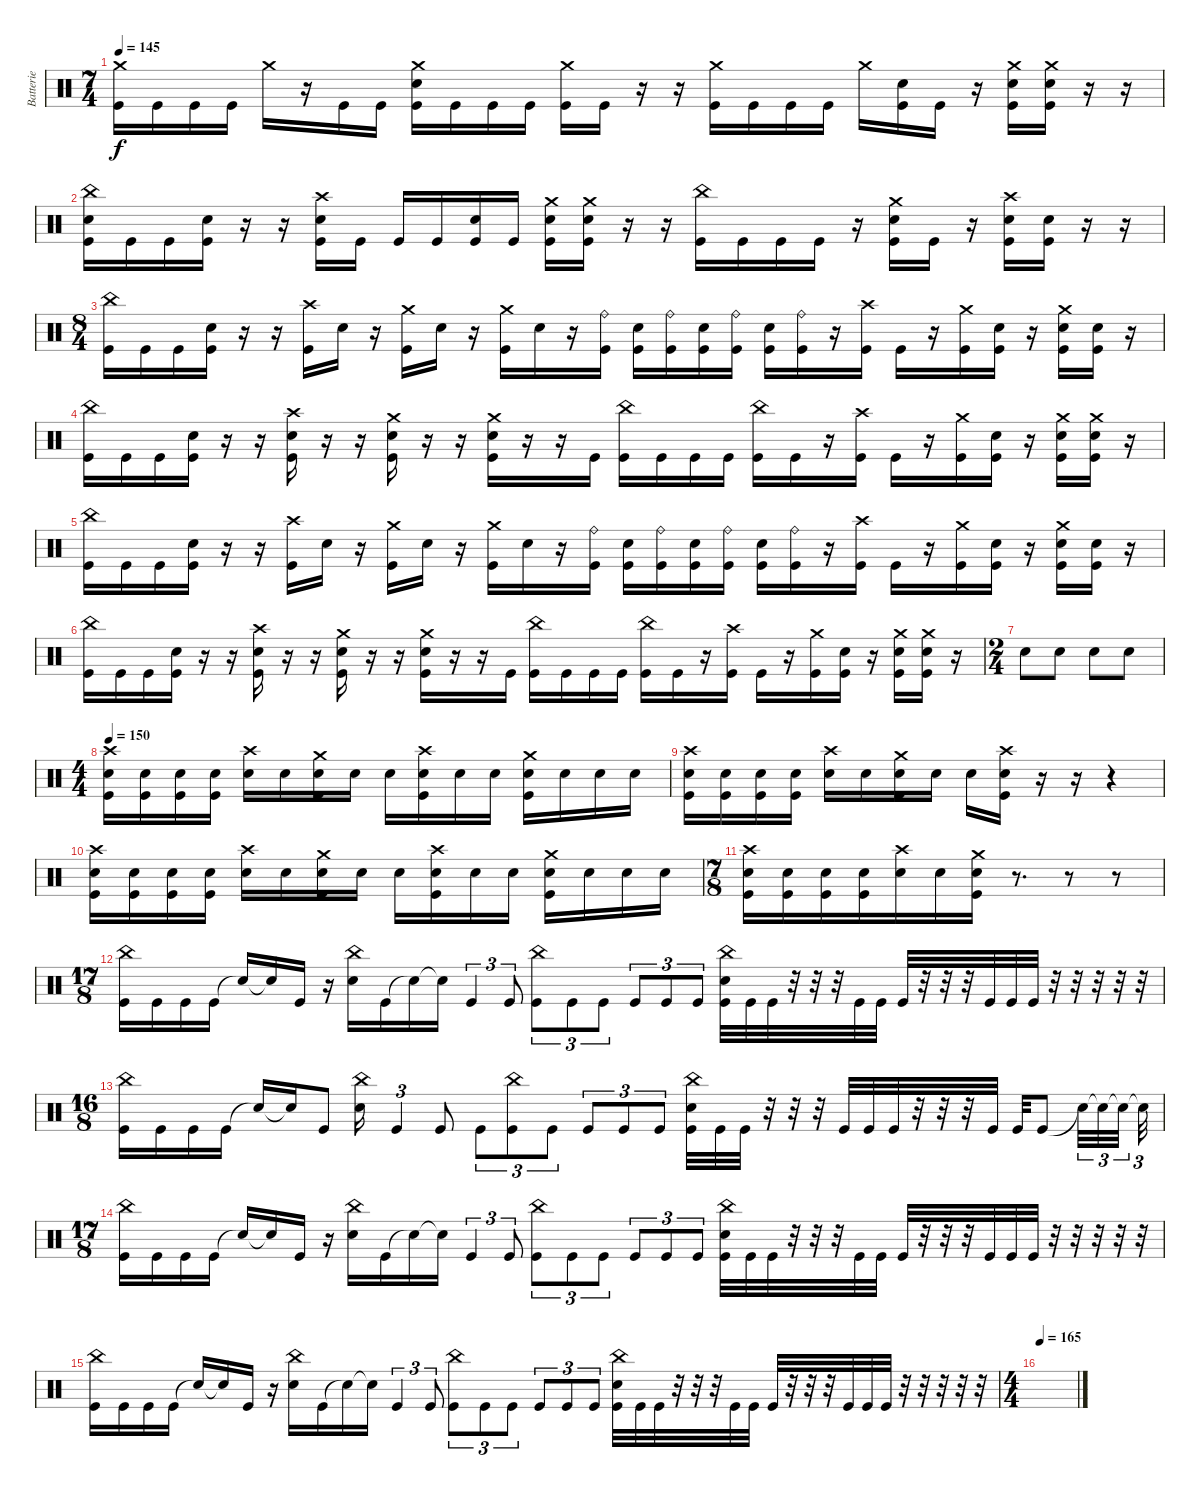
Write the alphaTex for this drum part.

\track ("Batterie" "Batterie") {instrument percussion}
\staff {score}
\articulation defaults
\ts (7 4)
\tempo 145
\clef neutral
\ks c
("Crash medium (hit)" "Kick (hit)").16{dy f} "Kick (hit)".16 "Kick (hit)".16 "Kick (hit)".16 "Crash medium (hit)".16 r.16 "Kick (hit)".16 "Kick (hit)".16 ("Crash medium (hit)" "Electric Snare (hit)" "Kick (hit)").16 "Kick (hit)".16 "Kick (hit)".16 "Kick (hit)".16 ("Crash medium (hit)" "Kick (hit)").16 "Kick (hit)".16 r.16 r.16 ("Crash medium (hit)" "Kick (hit)").16 "Kick (hit)".16 "Kick (hit)".16 "Kick (hit)".16 "Crash medium (hit)".16 ("Electric Snare (hit)" "Kick (hit)").16 "Kick (hit)".16 r.16 ("Crash medium (hit)" "Electric Snare (hit)" "Kick (hit)").16 ("Crash medium (hit)" "Electric Snare (hit)" "Kick (hit)").16 r.16 r.16 |
("China (hit)" "Electric Snare (hit)" "Kick (hit)").16 "Kick (hit)".16 "Kick (hit)".16 ("Electric Snare (hit)" "Kick (hit)").16 r.16 r.16 ("Crash high (hit)" "Electric Snare (hit)" "Kick (hit)").16 "Kick (hit)".16 "Kick (hit)".16 "Kick (hit)".16 ("Electric Snare (hit)" "Kick (hit)").16 "Kick (hit)".16 ("Crash medium (hit)" "Electric Snare (hit)" "Kick (hit)").16 ("Crash medium (hit)" "Electric Snare (hit)" "Kick (hit)").16 r.16 r.16 ("China (hit)" "Kick (hit)").16 "Kick (hit)".16 "Kick (hit)".16 "Kick (hit)".16 r.16 ("Crash medium (hit)" "Electric Snare (hit)" "Kick (hit)").16 "Kick (hit)".16 r.16 ("Crash high (hit)" "Electric Snare (hit)" "Kick (hit)").16 ("Electric Snare (hit)" "Kick (hit)").16 r.16 r.16 |
\ts (8 4)
("China (hit)" "Kick (hit)").16 "Kick (hit)".16 "Kick (hit)".16 ("Electric Snare (hit)" "Kick (hit)").16 r.16 r.16 ("Crash high (hit)" "Kick (hit)").16 "Electric Snare (hit)".16 r.16 ("Crash medium (hit)" "Kick (hit)").16 "Electric Snare (hit)".16 r.16 ("Crash medium (hit)" "Kick (hit)").16 "Electric Snare (hit)".16 r.16 ("Ride (bell)" "Kick (hit)").16 ("Electric Snare (hit)" "Kick (hit)").16 ("Ride (bell)" "Kick (hit)").16 ("Electric Snare (hit)" "Kick (hit)").16 ("Ride (bell)" "Kick (hit)").16 ("Electric Snare (hit)" "Kick (hit)").16 ("Ride (bell)" "Kick (hit)").16 r.16 ("Crash high (hit)" "Kick (hit)").16 "Kick (hit)".16 r.16 ("Crash medium (hit)" "Kick (hit)").16 ("Electric Snare (hit)" "Kick (hit)").16 r.16 ("Crash medium (hit)" "Electric Snare (hit)" "Kick (hit)").16 ("Electric Snare (hit)" "Kick (hit)").16 r.16 |
("China (hit)" "Kick (hit)").16 "Kick (hit)".16 "Kick (hit)".16 ("Electric Snare (hit)" "Kick (hit)").16 r.16 r.16 ("Crash high (hit)" "Electric Snare (hit)" "Kick (hit)").16 r.16 r.16 ("Crash medium (hit)" "Electric Snare (hit)" "Kick (hit)").16 r.16 r.16 ("Crash medium (hit)" "Electric Snare (hit)" "Kick (hit)").16 r.16 r.16 "Kick (hit)".16 ("China (hit)" "Kick (hit)").16 "Kick (hit)".16 "Kick (hit)".16 "Kick (hit)".16 ("China (hit)" "Kick (hit)").16 "Kick (hit)".16 r.16 ("Crash high (hit)" "Kick (hit)").16 "Kick (hit)".16 r.16 ("Crash medium (hit)" "Kick (hit)").16 ("Electric Snare (hit)" "Kick (hit)").16 r.16 ("Crash medium (hit)" "Electric Snare (hit)" "Kick (hit)").16 ("Crash medium (hit)" "Electric Snare (hit)" "Kick (hit)").16 r.16 |
("China (hit)" "Kick (hit)").16 "Kick (hit)".16 "Kick (hit)".16 ("Electric Snare (hit)" "Kick (hit)").16 r.16 r.16 ("Crash high (hit)" "Kick (hit)").16 "Electric Snare (hit)".16 r.16 ("Crash medium (hit)" "Kick (hit)").16 "Electric Snare (hit)".16 r.16 ("Crash medium (hit)" "Kick (hit)").16 "Electric Snare (hit)".16 r.16 ("Ride (bell)" "Kick (hit)").16 ("Electric Snare (hit)" "Kick (hit)").16 ("Ride (bell)" "Kick (hit)").16 ("Electric Snare (hit)" "Kick (hit)").16 ("Ride (bell)" "Kick (hit)").16 ("Electric Snare (hit)" "Kick (hit)").16 ("Ride (bell)" "Kick (hit)").16 r.16 ("Crash high (hit)" "Kick (hit)").16 "Kick (hit)".16 r.16 ("Crash medium (hit)" "Kick (hit)").16 ("Electric Snare (hit)" "Kick (hit)").16 r.16 ("Crash medium (hit)" "Electric Snare (hit)" "Kick (hit)").16 ("Electric Snare (hit)" "Kick (hit)").16 r.16 |
("China (hit)" "Kick (hit)").16 "Kick (hit)".16 "Kick (hit)".16 ("Electric Snare (hit)" "Kick (hit)").16 r.16 r.16 ("Crash high (hit)" "Electric Snare (hit)" "Kick (hit)").16 r.16 r.16 ("Crash medium (hit)" "Electric Snare (hit)" "Kick (hit)").16 r.16 r.16 ("Crash medium (hit)" "Electric Snare (hit)" "Kick (hit)").16 r.16 r.16 "Kick (hit)".16 ("China (hit)" "Kick (hit)").16 "Kick (hit)".16 "Kick (hit)".16 "Kick (hit)".16 ("China (hit)" "Kick (hit)").16 "Kick (hit)".16 r.16 ("Crash high (hit)" "Kick (hit)").16 "Kick (hit)".16 r.16 ("Crash medium (hit)" "Kick (hit)").16 ("Electric Snare (hit)" "Kick (hit)").16 r.16 ("Crash medium (hit)" "Electric Snare (hit)" "Kick (hit)").16 ("Crash medium (hit)" "Electric Snare (hit)" "Kick (hit)").16 r.16 |
\ts (2 4)
"Electric Snare (hit)".8 "Electric Snare (hit)".8 "Electric Snare (hit)".8 "Electric Snare (hit)".8 |
\ts (4 4)
\tempo 150
("Crash high (hit)" "Electric Snare (hit)" "Kick (hit)").16 ("Electric Snare (hit)" "Kick (hit)").16 ("Electric Snare (hit)" "Kick (hit)").16 ("Electric Snare (hit)" "Kick (hit)").16 ("Crash high (hit)" "Electric Snare (hit)").16 "Electric Snare (hit)".16 ("Crash medium (hit)" "Electric Snare (hit)" "Kick (hit)").16 "Electric Snare (hit)".16 "Electric Snare (hit)".16 ("Crash high (hit)" "Electric Snare (hit)" "Kick (hit)").16 "Electric Snare (hit)".16 "Electric Snare (hit)".16 ("Crash medium (hit)" "Electric Snare (hit)" "Kick (hit)").16 "Electric Snare (hit)".16 "Electric Snare (hit)".16 "Electric Snare (hit)".16 |
("Crash high (hit)" "Electric Snare (hit)" "Kick (hit)").16 ("Electric Snare (hit)" "Kick (hit)").16 ("Electric Snare (hit)" "Kick (hit)").16 ("Electric Snare (hit)" "Kick (hit)").16 ("Crash high (hit)" "Electric Snare (hit)").16 "Electric Snare (hit)".16 ("Crash medium (hit)" "Electric Snare (hit)" "Kick (hit)").16 "Electric Snare (hit)".16 "Electric Snare (hit)".16 ("Crash high (hit)" "Electric Snare (hit)" "Kick (hit)").16 r.16 r.16 r.4 |
("Crash high (hit)" "Electric Snare (hit)" "Kick (hit)").16 ("Electric Snare (hit)" "Kick (hit)").16 ("Electric Snare (hit)" "Kick (hit)").16 ("Electric Snare (hit)" "Kick (hit)").16 ("Crash high (hit)" "Electric Snare (hit)").16 "Electric Snare (hit)".16 ("Crash medium (hit)" "Electric Snare (hit)" "Kick (hit)").16 "Electric Snare (hit)".16 "Electric Snare (hit)".16 ("Crash high (hit)" "Electric Snare (hit)" "Kick (hit)").16 "Electric Snare (hit)".16 "Electric Snare (hit)".16 ("Crash medium (hit)" "Electric Snare (hit)" "Kick (hit)").16 "Electric Snare (hit)".16 "Electric Snare (hit)".16 "Electric Snare (hit)".16 |
\ts (7 8)
("Crash high (hit)" "Electric Snare (hit)" "Kick (hit)").16 ("Electric Snare (hit)" "Kick (hit)").16 ("Electric Snare (hit)" "Kick (hit)").16 ("Electric Snare (hit)" "Kick (hit)").16 ("Crash high (hit)" "Electric Snare (hit)").16 "Electric Snare (hit)".16 ("Crash medium (hit)" "Electric Snare (hit)" "Kick (hit)").16 r.8{d} r.8 r.8 |
\ts (17 8)
("China (hit)" "Kick (hit)").16 "Kick (hit)".16 "Kick (hit)".16 "Kick (hit)".16 "Snare (hit)"{t}.16 "Snare (hit)"{t}.16 "Kick (hit)".16 r.16 ("China (hit)" "Electric Snare (hit)").16 "Kick (hit)".16 "Snare (hit)"{t}.16 "Snare (hit)"{t}.16 "Kick (hit)".4{tu (3 2)} "Kick (hit)".8{tu (3 2)} ("China (hit)" "Kick (hit)").8{tu (3 2)} "Kick (hit)".8{tu (3 2)} "Kick (hit)".8{tu (3 2)} "Kick (hit)".8{tu (3 2)} "Kick (hit)".8{tu (3 2)} "Kick (hit)".8{tu (3 2)} ("China (hit)" "Electric Snare (hit)" "Kick (hit)").32 "Kick (hit)".32 "Kick (hit)".32 r.32 r.32 r.32 "Kick (hit)".32 "Kick (hit)".32 "Kick (hit)".32 r.32 r.32 r.32 "Kick (hit)".32 "Kick (hit)".32 "Kick (hit)".32 r.32 r.32 r.32 r.32 r.32 |
\ts (16 8)
("China (hit)" "Kick (hit)").16 "Kick (hit)".16 "Kick (hit)".16 "Kick (hit)".16 "Snare (hit)"{t}.16 "Snare (hit)"{t}.16 "Kick (hit)".8 ("China (hit)" "Electric Snare (hit)").16 "Kick (hit)".4{tu (3 2)} "Kick (hit)".8 "Kick (hit)".8{tu (3 2)} ("China (hit)" "Kick (hit)").8{tu (3 2)} "Kick (hit)".8{tu (3 2)} "Kick (hit)".8{tu (3 2)} "Kick (hit)".8{tu (3 2)} "Kick (hit)".8{tu (3 2)} ("China (hit)" "Electric Snare (hit)" "Kick (hit)").32 "Kick (hit)".32 "Kick (hit)".32 r.32 r.32 r.32 "Kick (hit)".32 "Kick (hit)".32 "Kick (hit)".32 r.32 r.32 r.32 "Kick (hit)".32 "Kick (hit)".32 "Kick (hit)".8 "Snare (hit)"{t}.32{tu (3 2)} "Snare (hit)"{t}.32{tu (3 2)} "Snare (hit)"{t}.32{tu (3 2) beam splitsecondary} "Snare (hit)"{t}.32{tu (3 2)} |
\ts (17 8)
("China (hit)" "Kick (hit)").16 "Kick (hit)".16 "Kick (hit)".16 "Kick (hit)".16 "Snare (hit)"{t}.16 "Snare (hit)"{t}.16 "Kick (hit)".16 r.16 ("China (hit)" "Electric Snare (hit)").16 "Kick (hit)".16 "Snare (hit)"{t}.16 "Snare (hit)"{t}.16 "Kick (hit)".4{tu (3 2)} "Kick (hit)".8{tu (3 2)} ("China (hit)" "Kick (hit)").8{tu (3 2)} "Kick (hit)".8{tu (3 2)} "Kick (hit)".8{tu (3 2)} "Kick (hit)".8{tu (3 2)} "Kick (hit)".8{tu (3 2)} "Kick (hit)".8{tu (3 2)} ("China (hit)" "Electric Snare (hit)" "Kick (hit)").32 "Kick (hit)".32 "Kick (hit)".32 r.32 r.32 r.32 "Kick (hit)".32 "Kick (hit)".32 "Kick (hit)".32 r.32 r.32 r.32 "Kick (hit)".32 "Kick (hit)".32 "Kick (hit)".32 r.32 r.32 r.32 r.32 r.32 |
("China (hit)" "Kick (hit)").16 "Kick (hit)".16 "Kick (hit)".16 "Kick (hit)".16 "Snare (hit)"{t}.16 "Snare (hit)"{t}.16 "Kick (hit)".16 r.16 ("China (hit)" "Electric Snare (hit)").16 "Kick (hit)".16 "Snare (hit)"{t}.16 "Snare (hit)"{t}.16 "Kick (hit)".4{tu (3 2)} "Kick (hit)".8{tu (3 2)} ("China (hit)" "Kick (hit)").8{tu (3 2)} "Kick (hit)".8{tu (3 2)} "Kick (hit)".8{tu (3 2)} "Kick (hit)".8{tu (3 2)} "Kick (hit)".8{tu (3 2)} "Kick (hit)".8{tu (3 2)} ("China (hit)" "Electric Snare (hit)" "Kick (hit)").32 "Kick (hit)".32 "Kick (hit)".32 r.32 r.32 r.32 "Kick (hit)".32 "Kick (hit)".32 "Kick (hit)".32 r.32 r.32 r.32 "Kick (hit)".32 "Kick (hit)".32 "Kick (hit)".32 r.32 r.32 r.32 r.32 r.32 |
\ts (4 4)
\tempo 165
